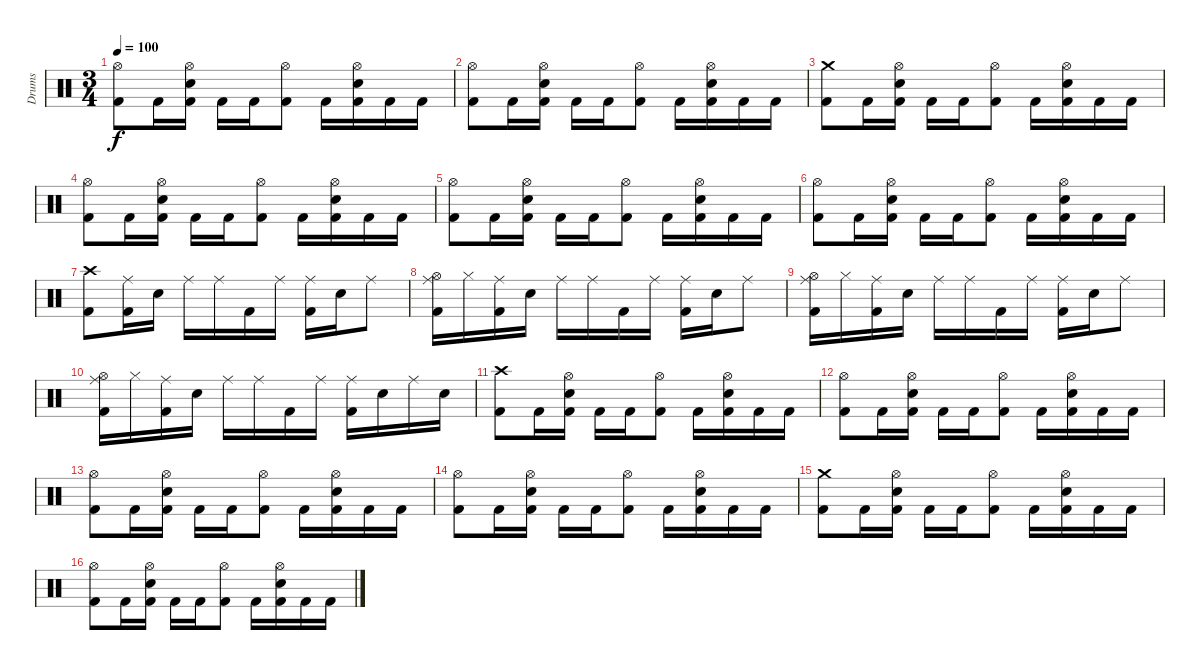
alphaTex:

\track ("Drums" "Drums") {instrument percussion}
\staff {score}
\articulation defaults
\ts (3 4)
\tempo 100
\clef neutral
\ks c
("Hi-Hat (open)" "Kick (hit) 2").8{dy f} "Kick (hit) 2".16 ("Hi-Hat (open)" "Electric Snare (hit)" "Kick (hit) 2").16 "Kick (hit) 2".16 "Kick (hit) 2".16 ("Hi-Hat (open)" "Kick (hit) 2").8 "Kick (hit) 2".16 ("Hi-Hat (open)" "Electric Snare (hit)" "Kick (hit) 2").16 "Kick (hit) 2".16 "Kick (hit) 2".16 |
("Hi-Hat (open)" "Kick (hit) 2").8 "Kick (hit) 2".16 ("Hi-Hat (open)" "Electric Snare (hit)" "Kick (hit) 2").16 "Kick (hit) 2".16 "Kick (hit) 2".16 ("Hi-Hat (open)" "Kick (hit) 2").8 "Kick (hit) 2".16 ("Hi-Hat (open)" "Electric Snare (hit)" "Kick (hit) 2").16 "Kick (hit) 2".16 "Kick (hit) 2".16 |
("Crash medium (hit)" "Kick (hit) 2").8 "Kick (hit) 2".16 ("Hi-Hat (open)" "Electric Snare (hit)" "Kick (hit) 2").16 "Kick (hit) 2".16 "Kick (hit) 2".16 ("Hi-Hat (open)" "Kick (hit) 2").8 "Kick (hit) 2".16 ("Hi-Hat (open)" "Electric Snare (hit)" "Kick (hit) 2").16 "Kick (hit) 2".16 "Kick (hit) 2".16 |
("Hi-Hat (open)" "Kick (hit) 2").8 "Kick (hit) 2".16 ("Hi-Hat (open)" "Electric Snare (hit)" "Kick (hit) 2").16 "Kick (hit) 2".16 "Kick (hit) 2".16 ("Hi-Hat (open)" "Kick (hit) 2").8 "Kick (hit) 2".16 ("Hi-Hat (open)" "Electric Snare (hit)" "Kick (hit) 2").16 "Kick (hit) 2".16 "Kick (hit) 2".16 |
("Hi-Hat (open)" "Kick (hit) 2").8 "Kick (hit) 2".16 ("Hi-Hat (open)" "Electric Snare (hit)" "Kick (hit) 2").16 "Kick (hit) 2".16 "Kick (hit) 2".16 ("Hi-Hat (open)" "Kick (hit) 2").8 "Kick (hit) 2".16 ("Hi-Hat (open)" "Electric Snare (hit)" "Kick (hit) 2").16 "Kick (hit) 2".16 "Kick (hit) 2".16 |
("Hi-Hat (open)" "Kick (hit) 2").8 "Kick (hit) 2".16 ("Hi-Hat (open)" "Electric Snare (hit)" "Kick (hit) 2").16 "Kick (hit) 2".16 "Kick (hit) 2".16 ("Hi-Hat (open)" "Kick (hit) 2").8 "Kick (hit) 2".16 ("Hi-Hat (open)" "Electric Snare (hit)" "Kick (hit) 2").16 "Kick (hit) 2".16 "Kick (hit) 2".16 |
("Crash high (hit)" "Kick (hit) 2").8 ("Ride (middle)" "Kick (hit) 2").16 "Electric Snare (hit)".16 "Ride (middle)".16 "Ride (middle)".16 "Kick (hit) 2".16 "Ride (middle)".16 ("Ride (middle)" "Kick (hit) 2").16 "Electric Snare (hit)".16 "Ride (middle)".8 |
("Ride (middle)" "Hi-Hat (open)" "Kick (hit) 2").16 "Hi-Hat (closed)".16 ("Ride (middle)" "Kick (hit) 2").16 "Electric Snare (hit)".16 "Ride (middle)".16 "Ride (middle)".16 "Kick (hit) 2".16 "Ride (middle)".16 ("Ride (middle)" "Kick (hit) 2").16 "Electric Snare (hit)".16 "Ride (middle)".8 |
("Ride (middle)" "Hi-Hat (open)" "Kick (hit) 2").16 "Hi-Hat (closed)".16 ("Ride (middle)" "Kick (hit) 2").16 "Electric Snare (hit)".16 "Ride (middle)".16 "Ride (middle)".16 "Kick (hit) 2".16 "Ride (middle)".16 ("Ride (middle)" "Kick (hit) 2").16 "Electric Snare (hit)".16 "Ride (middle)".8 |
("Ride (middle)" "Hi-Hat (open)" "Kick (hit) 2").16 "Hi-Hat (closed)".16 ("Ride (middle)" "Kick (hit) 2").16 "Electric Snare (hit)".16 "Ride (middle)".16 "Ride (middle)".16 "Kick (hit) 2".16 "Ride (middle)".16 ("Ride (middle)" "Kick (hit) 2").16 "Electric Snare (hit)".16 "Ride (middle)".16 "Electric Snare (hit)".16 |
("Crash high (hit)" "Kick (hit) 2").8 "Kick (hit) 2".16 ("Hi-Hat (open)" "Electric Snare (hit)" "Kick (hit) 2").16 "Kick (hit) 2".16 "Kick (hit) 2".16 ("Hi-Hat (open)" "Kick (hit) 2").8 "Kick (hit) 2".16 ("Hi-Hat (open)" "Electric Snare (hit)" "Kick (hit) 2").16 "Kick (hit) 2".16 "Kick (hit) 2".16 |
("Hi-Hat (open)" "Kick (hit) 2").8 "Kick (hit) 2".16 ("Hi-Hat (open)" "Electric Snare (hit)" "Kick (hit) 2").16 "Kick (hit) 2".16 "Kick (hit) 2".16 ("Hi-Hat (open)" "Kick (hit) 2").8 "Kick (hit) 2".16 ("Hi-Hat (open)" "Electric Snare (hit)" "Kick (hit) 2").16 "Kick (hit) 2".16 "Kick (hit) 2".16 |
("Hi-Hat (open)" "Kick (hit) 2").8 "Kick (hit) 2".16 ("Hi-Hat (open)" "Electric Snare (hit)" "Kick (hit) 2").16 "Kick (hit) 2".16 "Kick (hit) 2".16 ("Hi-Hat (open)" "Kick (hit) 2").8 "Kick (hit) 2".16 ("Hi-Hat (open)" "Electric Snare (hit)" "Kick (hit) 2").16 "Kick (hit) 2".16 "Kick (hit) 2".16 |
("Hi-Hat (open)" "Kick (hit) 2").8 "Kick (hit) 2".16 ("Hi-Hat (open)" "Electric Snare (hit)" "Kick (hit) 2").16 "Kick (hit) 2".16 "Kick (hit) 2".16 ("Hi-Hat (open)" "Kick (hit) 2").8 "Kick (hit) 2".16 ("Hi-Hat (open)" "Electric Snare (hit)" "Kick (hit) 2").16 "Kick (hit) 2".16 "Kick (hit) 2".16 |
("Crash medium (hit)" "Kick (hit) 2").8 "Kick (hit) 2".16 ("Hi-Hat (open)" "Electric Snare (hit)" "Kick (hit) 2").16 "Kick (hit) 2".16 "Kick (hit) 2".16 ("Hi-Hat (open)" "Kick (hit) 2").8 "Kick (hit) 2".16 ("Hi-Hat (open)" "Electric Snare (hit)" "Kick (hit) 2").16 "Kick (hit) 2".16 "Kick (hit) 2".16 |
("Hi-Hat (open)" "Kick (hit) 2").8 "Kick (hit) 2".16 ("Hi-Hat (open)" "Electric Snare (hit)" "Kick (hit) 2").16 "Kick (hit) 2".16 "Kick (hit) 2".16 ("Hi-Hat (open)" "Kick (hit) 2").8 "Kick (hit) 2".16 ("Hi-Hat (open)" "Electric Snare (hit)" "Kick (hit) 2").16 "Kick (hit) 2".16 "Kick (hit) 2".16
